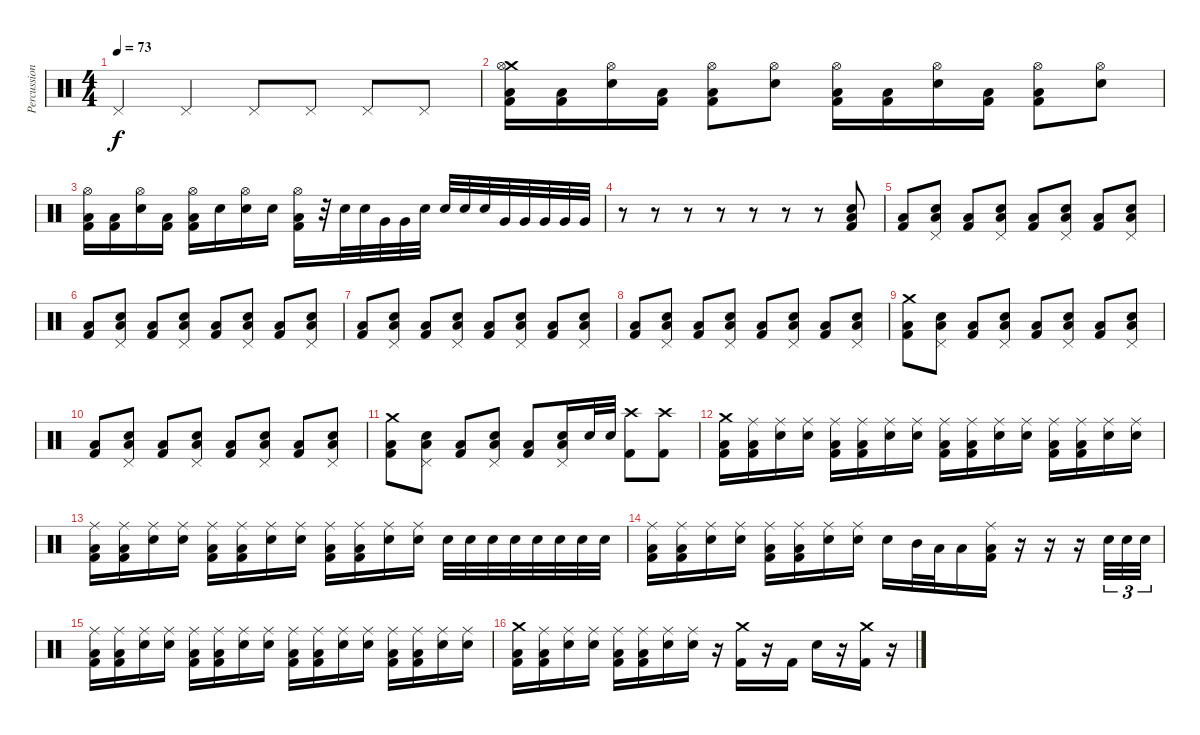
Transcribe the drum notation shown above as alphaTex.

\track ("Percussion" "Percussion") {instrument percussion}
\staff {score}
\articulation defaults
\ts (4 4)
\tempo 73
\clef neutral
\ks c "Pedal Hi-Hat (hit)".4{dy f} "Pedal Hi-Hat (hit)".4 "Pedal Hi-Hat (hit)".8 "Pedal Hi-Hat (hit)".8 "Pedal Hi-Hat (hit)".8 "Pedal Hi-Hat (hit)".8
|
("Crash medium (hit)" "Hi-Hat (open)" "Kick (hit) 2" "Low Floor Tom (hit)").16 ("Kick (hit) 2" "Low Floor Tom (hit)").16 ("Hi-Hat (open)" "Snare (hit) 2").16 ("Kick (hit) 2" "Low Floor Tom (hit)").16 ("Hi-Hat (open)" "Kick (hit) 2" "Low Floor Tom (hit)").8 ("Hi-Hat (open)" "Snare (hit) 2").8 ("Hi-Hat (open)" "Kick (hit) 2" "Low Floor Tom (hit)").16 ("Kick (hit) 2" "Low Floor Tom (hit)").16 ("Hi-Hat (open)" "Snare (hit) 2").16 ("Kick (hit) 2" "Low Floor Tom (hit)").16 ("Hi-Hat (open)" "Kick (hit) 2" "Low Floor Tom (hit)").8 ("Hi-Hat (open)" "Snare (hit) 2").8 |
("Hi-Hat (open)" "Kick (hit) 2" "Low Floor Tom (hit)").16 ("Kick (hit) 2" "Low Floor Tom (hit)").16 ("Hi-Hat (open)" "Snare (hit) 2").16 ("Kick (hit) 2" "Low Floor Tom (hit)").16 ("Hi-Hat (open)" "Kick (hit) 2" "Low Floor Tom (hit)").16 "Snare (hit) 2".16 ("Hi-Hat (open)" "Snare (hit) 2").16 "Snare (hit) 2".16 ("Hi-Hat (open)" "Kick (hit) 2" "Low Floor Tom (hit)").16 r.32 "Snare (hit) 2".32 "Snare (hit) 2".32 "Very Low Tom (hit)".32 "Very Low Tom (hit)".32 "Snare (hit) 2".32 "Snare (hit) 2".32 "Snare (hit) 2".32 "Snare (hit) 2".32 "Very Low Tom (hit)".32 "Very Low Tom (hit)".32 "Very Low Tom (hit)".32 "Very Low Tom (hit)".32 "Very Low Tom (hit)".32 |
r.8 r.8 r.8 r.8 r.8 r.8 r.8 ("Snare (hit) 2" "Kick (hit) 2" "Low Floor Tom (hit)").8 |
("Kick (hit) 2" "Low Floor Tom (hit)").8 ("Pedal Hi-Hat (hit)" "Snare (hit) 2" "Low Floor Tom (hit)").8 ("Kick (hit) 2" "Low Floor Tom (hit)").8 ("Pedal Hi-Hat (hit)" "Snare (hit) 2" "Low Floor Tom (hit)").8 ("Kick (hit) 2" "Low Floor Tom (hit)").8 ("Pedal Hi-Hat (hit)" "Snare (hit) 2" "Low Floor Tom (hit)").8 ("Kick (hit) 2" "Low Floor Tom (hit)").8 ("Pedal Hi-Hat (hit)" "Snare (hit) 2" "Low Floor Tom (hit)").8 |
("Kick (hit) 2" "Low Floor Tom (hit)").8 ("Pedal Hi-Hat (hit)" "Snare (hit) 2" "Low Floor Tom (hit)").8 ("Kick (hit) 2" "Low Floor Tom (hit)").8 ("Pedal Hi-Hat (hit)" "Snare (hit) 2" "Low Floor Tom (hit)").8 ("Kick (hit) 2" "Low Floor Tom (hit)").8 ("Pedal Hi-Hat (hit)" "Snare (hit) 2" "Low Floor Tom (hit)").8 ("Kick (hit) 2" "Low Floor Tom (hit)").8 ("Pedal Hi-Hat (hit)" "Snare (hit) 2" "Low Floor Tom (hit)").8 |
("Kick (hit) 2" "Low Floor Tom (hit)").8 ("Pedal Hi-Hat (hit)" "Snare (hit) 2" "Low Floor Tom (hit)").8 ("Kick (hit) 2" "Low Floor Tom (hit)").8 ("Pedal Hi-Hat (hit)" "Snare (hit) 2" "Low Floor Tom (hit)").8 ("Kick (hit) 2" "Low Floor Tom (hit)").8 ("Pedal Hi-Hat (hit)" "Snare (hit) 2" "Low Floor Tom (hit)").8 ("Kick (hit) 2" "Low Floor Tom (hit)").8 ("Pedal Hi-Hat (hit)" "Snare (hit) 2" "Low Floor Tom (hit)").8 |
("Kick (hit) 2" "Low Floor Tom (hit)").8 ("Pedal Hi-Hat (hit)" "Snare (hit) 2" "Low Floor Tom (hit)").8 ("Kick (hit) 2" "Low Floor Tom (hit)").8 ("Pedal Hi-Hat (hit)" "Snare (hit) 2" "Low Floor Tom (hit)").8 ("Kick (hit) 2" "Low Floor Tom (hit)").8 ("Pedal Hi-Hat (hit)" "Snare (hit) 2" "Low Floor Tom (hit)").8 ("Kick (hit) 2" "Low Floor Tom (hit)").8 ("Pedal Hi-Hat (hit)" "Snare (hit) 2" "Low Floor Tom (hit)").8 |
("Crash medium (hit)" "Kick (hit) 2" "Low Floor Tom (hit)").8 ("Pedal Hi-Hat (hit)" "Snare (hit) 2" "Low Floor Tom (hit)").8 ("Kick (hit) 2" "Low Floor Tom (hit)").8 ("Pedal Hi-Hat (hit)" "Snare (hit) 2" "Low Floor Tom (hit)").8 ("Kick (hit) 2" "Low Floor Tom (hit)").8 ("Pedal Hi-Hat (hit)" "Snare (hit) 2" "Low Floor Tom (hit)").8 ("Kick (hit) 2" "Low Floor Tom (hit)").8 ("Pedal Hi-Hat (hit)" "Snare (hit) 2" "Low Floor Tom (hit)").8 |
("Kick (hit) 2" "Low Floor Tom (hit)").8 ("Pedal Hi-Hat (hit)" "Snare (hit) 2" "Low Floor Tom (hit)").8 ("Kick (hit) 2" "Low Floor Tom (hit)").8 ("Pedal Hi-Hat (hit)" "Snare (hit) 2" "Low Floor Tom (hit)").8 ("Kick (hit) 2" "Low Floor Tom (hit)").8 ("Pedal Hi-Hat (hit)" "Snare (hit) 2" "Low Floor Tom (hit)").8 ("Kick (hit) 2" "Low Floor Tom (hit)").8 ("Pedal Hi-Hat (hit)" "Snare (hit) 2" "Low Floor Tom (hit)").8 |
("Crash medium (hit)" "Kick (hit) 2" "Low Floor Tom (hit)").8 ("Pedal Hi-Hat (hit)" "Snare (hit) 2" "Low Floor Tom (hit)").8 ("Kick (hit) 2" "Low Floor Tom (hit)").8 ("Pedal Hi-Hat (hit)" "Snare (hit) 2" "Low Floor Tom (hit)").8 ("Kick (hit) 2" "Low Floor Tom (hit)").8 ("Pedal Hi-Hat (hit)" "Snare (hit) 2" "Low Floor Tom (hit)").16 "Snare (hit) 2".32 "Snare (hit) 2".32 ("Crash high (hit)" "Kick (hit) 2").8 ("Crash high (hit)" "Kick (hit) 2").8 |
("Crash medium (hit)" "Kick (hit) 2" "Low Floor Tom (hit)").16 ("Ride (middle)" "Kick (hit) 2" "Low Floor Tom (hit)").16 ("Ride (middle)" "Snare (hit) 2").16 ("Ride (middle)" "Snare (hit) 2").16 ("Ride (middle)" "Kick (hit) 2" "Low Floor Tom (hit)").16 ("Ride (middle)" "Kick (hit) 2" "Low Floor Tom (hit)").16 ("Ride (middle)" "Snare (hit) 2").16 ("Ride (middle)" "Snare (hit) 2").16 ("Ride (middle)" "Kick (hit) 2" "Low Floor Tom (hit)").16 ("Ride (middle)" "Kick (hit) 2" "Low Floor Tom (hit)").16 ("Ride (middle)" "Snare (hit) 2").16 ("Ride (middle)" "Snare (hit) 2").16 ("Ride (middle)" "Kick (hit) 2" "Low Floor Tom (hit)").16 ("Ride (middle)" "Kick (hit) 2" "Low Floor Tom (hit)").16 ("Ride (middle)" "Snare (hit) 2").16 ("Ride (middle)" "Snare (hit) 2").16 |
("Ride (middle)" "Kick (hit) 2" "Low Floor Tom (hit)").16 ("Ride (middle)" "Kick (hit) 2" "Low Floor Tom (hit)").16 ("Ride (middle)" "Snare (hit) 2").16 ("Ride (middle)" "Snare (hit) 2").16 ("Ride (middle)" "Kick (hit) 2" "Low Floor Tom (hit)").16 ("Ride (middle)" "Kick (hit) 2" "Low Floor Tom (hit)").16 ("Ride (middle)" "Snare (hit) 2").16 ("Ride (middle)" "Snare (hit) 2").16 ("Ride (middle)" "Kick (hit) 2" "Low Floor Tom (hit)").16 ("Ride (middle)" "Kick (hit) 2" "Low Floor Tom (hit)").16 ("Ride (middle)" "Snare (hit) 2").16 ("Ride (middle)" "Snare (hit) 2").16 "Snare (hit) 2".32 "Snare (hit) 2".32 "Snare (hit) 2".32 "Snare (hit) 2".32 "Snare (hit) 2".32 "Snare (hit) 2".32 "Snare (hit) 2".32 "Snare (hit) 2".32 |
("Ride (middle)" "Kick (hit) 2" "Low Floor Tom (hit)").16 ("Ride (middle)" "Kick (hit) 2" "Low Floor Tom (hit)").16 ("Ride (middle)" "Snare (hit) 2").16 ("Ride (middle)" "Snare (hit) 2").16 ("Ride (middle)" "Kick (hit) 2" "Low Floor Tom (hit)").16 ("Ride (middle)" "Kick (hit) 2" "Low Floor Tom (hit)").16 ("Ride (middle)" "Snare (hit) 2").16 ("Ride (middle)" "Snare (hit) 2").16 "Snare (hit) 2".16 "Mid Tom (hit)".32 "Low Tom (hit)".32 "Low Floor Tom (hit)".16 ("Ride (middle)" "Kick (hit) 2" "Low Floor Tom (hit)").16 r.16 r.16 r.16 "Snare (hit) 2".32{tu (3 2)} "Snare (hit) 2".32{tu (3 2)} "Snare (hit) 2".32{tu (3 2)} |
("Ride (middle)" "Kick (hit) 2" "Low Floor Tom (hit)").16 ("Ride (middle)" "Kick (hit) 2" "Low Floor Tom (hit)").16 ("Ride (middle)" "Snare (hit) 2").16 ("Ride (middle)" "Snare (hit) 2").16 ("Ride (middle)" "Kick (hit) 2" "Low Floor Tom (hit)").16 ("Ride (middle)" "Kick (hit) 2" "Low Floor Tom (hit)").16 ("Ride (middle)" "Snare (hit) 2").16 ("Ride (middle)" "Snare (hit) 2").16 ("Ride (middle)" "Kick (hit) 2" "Low Floor Tom (hit)").16 ("Ride (middle)" "Kick (hit) 2" "Low Floor Tom (hit)").16 ("Ride (middle)" "Snare (hit) 2").16 ("Ride (middle)" "Snare (hit) 2").16 ("Ride (middle)" "Kick (hit) 2" "Low Floor Tom (hit)").16 ("Ride (middle)" "Kick (hit) 2" "Low Floor Tom (hit)").16 ("Ride (middle)" "Snare (hit) 2").16 ("Ride (middle)" "Snare (hit) 2").16 |
("Crash medium (hit)" "Kick (hit) 2" "Low Floor Tom (hit)").16 ("Ride (middle)" "Kick (hit) 2" "Low Floor Tom (hit)").16 ("Ride (middle)" "Snare (hit) 2").16 ("Ride (middle)" "Snare (hit) 2").16 ("Ride (middle)" "Kick (hit) 2" "Low Floor Tom (hit)").16 ("Ride (middle)" "Kick (hit) 2" "Low Floor Tom (hit)").16 ("Ride (middle)" "Snare (hit) 2").16 ("Ride (middle)" "Snare (hit) 2").16 r.16 ("Crash medium (hit)" "Kick (hit) 2").16 r.16 "Kick (hit) 2".16 "Snare (hit) 2".16 r.16 ("Crash medium (hit)" "Kick (hit) 2").16 r.16
